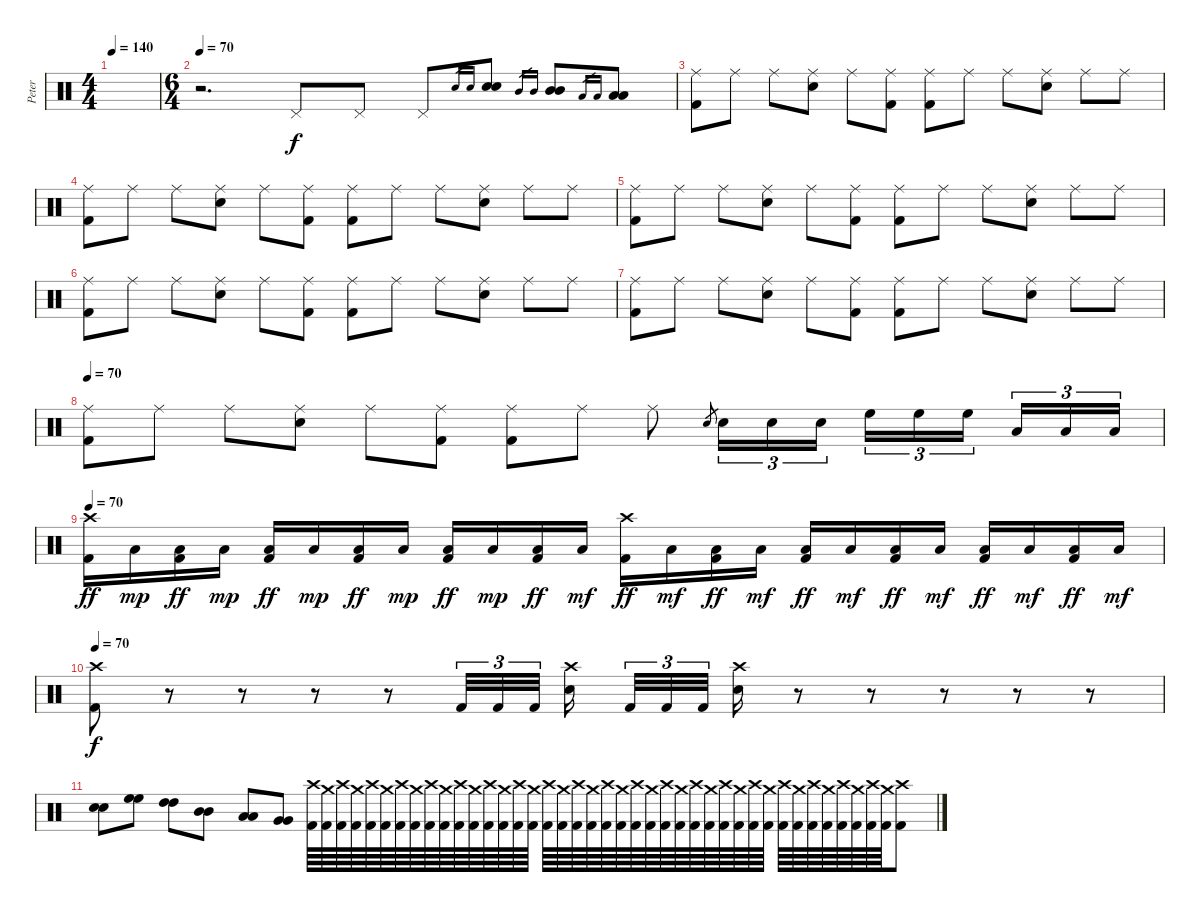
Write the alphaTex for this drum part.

\track ("Peter" "Peter") {instrument percussion}
\staff {score}
\articulation defaults
\ts (4 4)
\tempo 140
\clef neutral
\ks c
|
\ts (6 4)
\tempo 70
r.2{d} "Pedal Hi-Hat (hit)".8 "Pedal Hi-Hat (hit)".8 "Pedal Hi-Hat (hit)".8 "Electric Snare (hit)".16{gr} "Electric Snare (hit)".16{gr} ("Electric Snare (hit)" "Electric Snare (hit)").8 "Mid Tom (hit)".16{gr} "Mid Tom (hit)".16{gr} ("Mid Tom (hit)" "Mid Tom (hit)").8 "Low Tom (hit)".16{gr} "Low Tom (hit)".16{gr} ("Low Tom (hit)" "Low Tom (hit)").8 |
("Ride (middle)" "Kick (hit) 2").8 "Ride (middle)".8 "Ride (middle)".8 ("Ride (middle)" "Electric Snare (hit)").8 "Ride (middle)".8 ("Ride (middle)" "Kick (hit) 2").8 ("Ride (middle)" "Kick (hit) 2").8 "Ride (middle)".8 "Ride (middle)".8 ("Ride (middle)" "Electric Snare (hit)").8 "Ride (middle)".8 "Ride (middle)".8 |
("Ride (middle)" "Kick (hit) 2").8 "Ride (middle)".8 "Ride (middle)".8 ("Ride (middle)" "Electric Snare (hit)").8 "Ride (middle)".8 ("Ride (middle)" "Kick (hit) 2").8 ("Ride (middle)" "Kick (hit) 2").8 "Ride (middle)".8 "Ride (middle)".8 ("Ride (middle)" "Electric Snare (hit)").8 "Ride (middle)".8 "Ride (middle)".8 |
("Ride (middle)" "Kick (hit) 2").8 "Ride (middle)".8 "Ride (middle)".8 ("Ride (middle)" "Electric Snare (hit)").8 "Ride (middle)".8 ("Ride (middle)" "Kick (hit) 2").8 ("Ride (middle)" "Kick (hit) 2").8 "Ride (middle)".8 "Ride (middle)".8 ("Ride (middle)" "Electric Snare (hit)").8 "Ride (middle)".8 "Ride (middle)".8 |
("Ride (middle)" "Kick (hit) 2").8 "Ride (middle)".8 "Ride (middle)".8 ("Ride (middle)" "Electric Snare (hit)").8 "Ride (middle)".8 ("Ride (middle)" "Kick (hit) 2").8 ("Ride (middle)" "Kick (hit) 2").8 "Ride (middle)".8 "Ride (middle)".8 ("Ride (middle)" "Electric Snare (hit)").8 "Ride (middle)".8 "Ride (middle)".8 |
("Ride (middle)" "Kick (hit) 2").8 "Ride (middle)".8 "Ride (middle)".8 ("Ride (middle)" "Electric Snare (hit)").8 "Ride (middle)".8 ("Ride (middle)" "Kick (hit) 2").8 ("Ride (middle)" "Kick (hit) 2").8 "Ride (middle)".8 "Ride (middle)".8 ("Ride (middle)" "Electric Snare (hit)").8 "Ride (middle)".8 "Ride (middle)".8 |
\tempo 70
("Ride (middle)" "Kick (hit) 2").8 "Ride (middle)".8 "Ride (middle)".8 ("Ride (middle)" "Electric Snare (hit)").8 "Ride (middle)".8 ("Ride (middle)" "Kick (hit) 2").8 ("Ride (middle)" "Kick (hit) 2").8 "Ride (middle)".8 "Ride (middle)".8 "Electric Snare (hit)".8{gr} "Electric Snare (hit)".16{tu (3 2)} "Electric Snare (hit)".16{tu (3 2)} "Electric Snare (hit)".16{tu (3 2)} "High Floor Tom (hit)".16{tu (3 2)} "High Floor Tom (hit)".16{tu (3 2)} "High Floor Tom (hit)".16{tu (3 2)} "Low Tom (hit)".16{tu (3 2)} "Low Tom (hit)".16{tu (3 2)} "Low Tom (hit)".16{tu (3 2)} |
\tempo 70
("Crash high (hit)" "Kick (hit) 2").16{dy ff} "Low Floor Tom (hit)".16{dy mp} ("Kick (hit) 2" "Low Floor Tom (hit)").16{dy ff} "Low Floor Tom (hit)".16{dy mp} ("Kick (hit) 2" "Low Floor Tom (hit)").16{dy ff} "Low Floor Tom (hit)".16{dy mp} ("Kick (hit) 2" "Low Floor Tom (hit)").16{dy ff} "Low Floor Tom (hit)".16{dy mp} ("Kick (hit) 2" "Low Floor Tom (hit)").16{dy ff} "Low Floor Tom (hit)".16{dy mp} ("Kick (hit) 2" "Low Floor Tom (hit)").16{dy ff} "Low Floor Tom (hit)".16{dy mf} ("Crash high (hit)" "Kick (hit) 2").16{dy ff} "Low Floor Tom (hit)".16{dy mf} ("Kick (hit) 2" "Low Floor Tom (hit)").16{dy ff} "Low Floor Tom (hit)".16{dy mf} ("Kick (hit) 2" "Low Floor Tom (hit)").16{dy ff} "Low Floor Tom (hit)".16{dy mf} ("Kick (hit) 2" "Low Floor Tom (hit)").16{dy ff} "Low Floor Tom (hit)".16{dy mf} ("Kick (hit) 2" "Low Floor Tom (hit)").16{dy ff} "Low Floor Tom (hit)".16{dy mf} ("Kick (hit) 2" "Low Floor Tom (hit)").16{dy ff} "Low Floor Tom (hit)".16{dy mf} |
\tempo 140
\tempo 70
("Crash high (hit)" "Kick (hit) 2").8{dy f} r.8 r.8 r.8 r.8 "Kick (hit) 2".32{tu (3 2)} "Kick (hit) 2".32{tu (3 2)} "Kick (hit) 2".32{tu (3 2)} ("Crash high (hit)" "Electric Snare (hit)").16 "Kick (hit) 2".32{tu (3 2)} "Kick (hit) 2".32{tu (3 2)} "Kick (hit) 2".32{tu (3 2)} ("Crash high (hit)" "Electric Snare (hit)").16 r.8 r.8 r.8 r.8 r.8 |
("Electric Snare (hit)" "Electric Snare (hit)").8 ("High Floor Tom (hit)" "High Floor Tom (hit)").8 ("High Tom (hit)" "High Tom (hit)").8 ("Mid Tom (hit)" "Mid Tom (hit)").8 ("Low Tom (hit)" "Low Tom (hit)").8 ("Very Low Tom (hit)" "Very Low Tom (hit)").8 ("Crash high (hit)" "Kick (hit) 2").64 ("Crash medium (hit)" "Kick (hit) 2").64 ("Crash high (hit)" "Kick (hit) 2").64 ("Crash medium (hit)" "Kick (hit) 2").64 ("Crash high (hit)" "Kick (hit) 2").64 ("Crash medium (hit)" "Kick (hit) 2").64 ("Crash high (hit)" "Kick (hit) 2").64 ("Crash medium (hit)" "Kick (hit) 2").64 ("Crash high (hit)" "Kick (hit) 2").64 ("Crash medium (hit)" "Kick (hit) 2").64 ("Crash high (hit)" "Kick (hit) 2").64 ("Crash medium (hit)" "Kick (hit) 2").64 ("Crash high (hit)" "Kick (hit) 2").64 ("Crash medium (hit)" "Kick (hit) 2").64 ("Crash high (hit)" "Kick (hit) 2").64 ("Crash medium (hit)" "Kick (hit) 2").64 ("Crash high (hit)" "Kick (hit) 2").64 ("Crash medium (hit)" "Kick (hit) 2").64 ("Crash high (hit)" "Kick (hit) 2").64 ("Crash medium (hit)" "Kick (hit) 2").64 ("Crash high (hit)" "Kick (hit) 2").64 ("Crash medium (hit)" "Kick (hit) 2").64 ("Crash high (hit)" "Kick (hit) 2").64 ("Crash medium (hit)" "Kick (hit) 2").64 ("Crash high (hit)" "Kick (hit) 2").64 ("Crash medium (hit)" "Kick (hit) 2").64 ("Crash high (hit)" "Kick (hit) 2").64 ("Crash medium (hit)" "Kick (hit) 2").64 ("Crash high (hit)" "Kick (hit) 2").64 ("Crash medium (hit)" "Kick (hit) 2").64 ("Crash high (hit)" "Kick (hit) 2").64 ("Crash medium (hit)" "Kick (hit) 2").64 ("Crash high (hit)" "Kick (hit) 2").64 ("Crash medium (hit)" "Kick (hit) 2").64 ("Crash high (hit)" "Kick (hit) 2").64 ("Crash medium (hit)" "Kick (hit) 2").64 ("Crash high (hit)" "Kick (hit) 2").64 ("Crash medium (hit)" "Kick (hit) 2").64 ("Crash high (hit)" "Kick (hit) 2").64 ("Crash medium (hit)" "Kick (hit) 2").64 ("Crash high (hit)" "Kick (hit) 2").8
